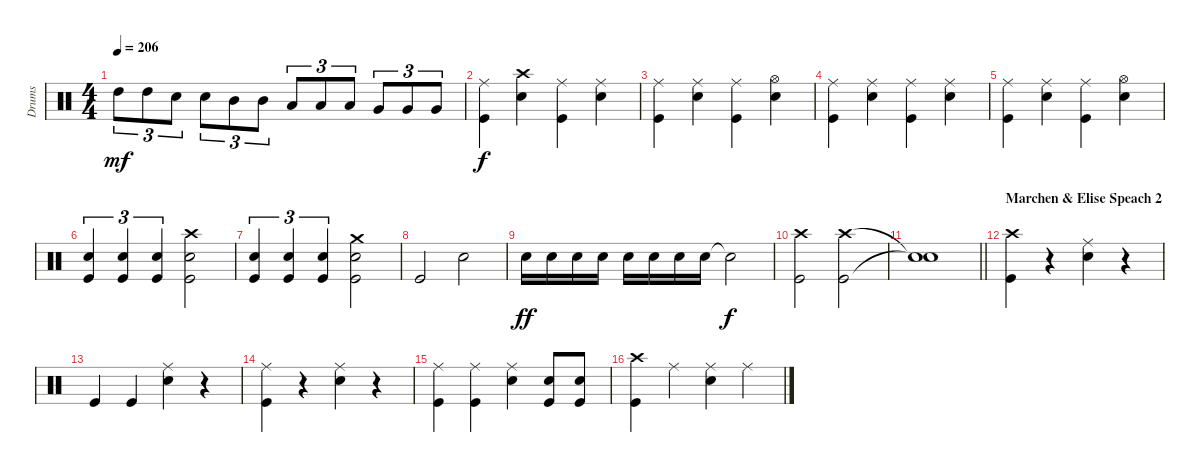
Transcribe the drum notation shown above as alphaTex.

\track ("Drums" "Drums") {instrument percussion}
\staff {score}
\articulation defaults
\ts (4 4)
\tempo 206
\clef neutral
\ks c "High Tom (hit)".8{tu (3 2) dy mf balance 12} "High Tom (hit)".8{tu (3 2)} "Electric Snare (hit)".8{tu (3 2)} "Electric Snare (hit)".8{tu (3 2)} "Mid Tom (hit)".8{tu (3 2)} "Mid Tom (hit)".8{tu (3 2)} "Low Tom (hit)".8{tu (3 2)} "Low Tom (hit)".8{tu (3 2)} "Low Tom (hit)".8{tu (3 2)} "Very Low Tom (hit)".8{tu (3 2)} "Very Low Tom (hit)".8{tu (3 2)} "Very Low Tom (hit)".8{tu (3 2)}
|
("Ride (middle)" "Kick (hit)").4{dy f balance 9} ("Crash high (hit)" "Electric Snare (hit)").4 ("Ride (middle)" "Kick (hit)").4 ("Ride (middle)" "Electric Snare (hit)").4 |
("Ride (middle)" "Kick (hit)").4 ("Ride (middle)" "Electric Snare (hit)").4 ("Ride (middle)" "Kick (hit)").4 ("Hi-Hat (open)" "Electric Snare (hit)").4 |
("Ride (middle)" "Kick (hit)").4 ("Ride (middle)" "Electric Snare (hit)").4 ("Ride (middle)" "Kick (hit)").4 ("Ride (middle)" "Electric Snare (hit)").4 |
("Ride (middle)" "Kick (hit)").4 ("Ride (middle)" "Electric Snare (hit)").4 ("Ride (middle)" "Kick (hit)").4 ("Hi-Hat (open)" "Electric Snare (hit)").4 |
("Electric Snare (hit)" "Kick (hit)").4{tu (3 2)} ("Electric Snare (hit)" "Kick (hit)").4{tu (3 2)} ("Electric Snare (hit)" "Kick (hit)").4{tu (3 2)} ("Crash high (hit)" "Electric Snare (hit)" "Kick (hit)").2 |
("Electric Snare (hit)" "Kick (hit)").4{tu (3 2)} ("Electric Snare (hit)" "Kick (hit)").4{tu (3 2)} ("Electric Snare (hit)" "Kick (hit)").4{tu (3 2)} ("Crash medium (hit)" "Electric Snare (hit)" "Kick (hit)").2 |
"Kick (hit)".2 "Electric Snare (hit)".2 |
"Electric Snare (hit)".16{dy ff volume 4} "Electric Snare (hit)".16{volume 15} "Electric Snare (hit)".16 "Electric Snare (hit)".16 "Electric Snare (hit)".16 "Electric Snare (hit)".16 "Electric Snare (hit)".16 "Electric Snare (hit)".16 "Snare (hit)"{t}.2{dy f volume 12} |
("Crash high (hit)" "Kick (hit)").2 ("Crash high (hit)" "Kick (hit)").2 |
\barLineRight lightlight
("Snare (hit)"{t} "Snare (hit)"{t}).1 |
\section ("" "Marchen & Elise Speach 2")
("Crash high (hit)" "Kick (hit)").4{volume 11} r.4 ("Ride (middle)" "Electric Snare (hit)").4 r.4 |
"Kick (hit)".4 "Kick (hit)".4 ("Ride (middle)" "Electric Snare (hit)").4 r.4 |
("Ride (middle)" "Kick (hit)").4 r.4 ("Ride (middle)" "Electric Snare (hit)").4 r.4 |
("Ride (middle)" "Kick (hit)").4 ("Ride (middle)" "Kick (hit)").4 ("Ride (middle)" "Electric Snare (hit)").4 ("Electric Snare (hit)" "Kick (hit)").8 ("Electric Snare (hit)" "Kick (hit)").8 |
("Crash high (hit)" "Kick (hit)").4 "Ride (middle)".4 ("Ride (middle)" "Electric Snare (hit)").4 "Ride (middle)".4
